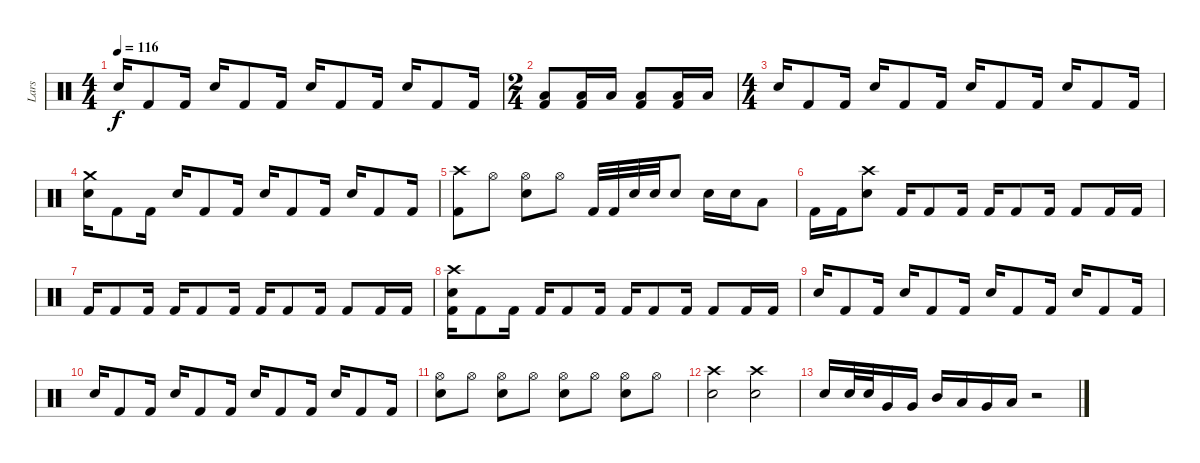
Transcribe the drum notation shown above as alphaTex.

\track ("Lars" "Lars") {instrument percussion}
\staff {score}
\articulation defaults
\ts (4 4)
\tempo 116
\clef neutral
\ks c "Snare (hit) 2".16{dy f} "Kick (hit) 2".8 "Kick (hit) 2".16 "Snare (hit) 2".16 "Kick (hit) 2".8 "Kick (hit) 2".16 "Snare (hit) 2".16 "Kick (hit) 2".8 "Kick (hit) 2".16 "Snare (hit) 2".16 "Kick (hit) 2".8 "Kick (hit) 2".16
|
\ts (2 4)
("Kick (hit) 2" "Low Floor Tom (hit)").8 ("Kick (hit) 2" "Low Floor Tom (hit)").16 "Low Floor Tom (hit)".16 ("Kick (hit) 2" "Low Floor Tom (hit)").8 ("Kick (hit) 2" "Low Floor Tom (hit)").16 "Low Floor Tom (hit)".16 |
\ts (4 4)
"Snare (hit) 2".16 "Kick (hit) 2".8 "Kick (hit) 2".16 "Snare (hit) 2".16 "Kick (hit) 2".8 "Kick (hit) 2".16 "Snare (hit) 2".16 "Kick (hit) 2".8 "Kick (hit) 2".16 "Snare (hit) 2".16 "Kick (hit) 2".8 "Kick (hit) 2".16 |
("Crash medium (hit)" "Snare (hit) 2").16 "Kick (hit) 2".8 "Kick (hit) 2".16 "Snare (hit) 2".16 "Kick (hit) 2".8 "Kick (hit) 2".16 "Snare (hit) 2".16 "Kick (hit) 2".8 "Kick (hit) 2".16 "Snare (hit) 2".16 "Kick (hit) 2".8 "Kick (hit) 2".16 |
("Crash high (hit)" "Kick (hit) 2").8 "Hi-Hat (open)".8 ("Snare (hit) 2" "Hi-Hat (open)").8 "Hi-Hat (open)".8 "Kick (hit) 2".32 "Kick (hit) 2".32 "Snare (hit) 2".32 "Snare (hit) 2".32 "Snare (hit) 2".8 "Snare (hit) 2".16 "Snare (hit) 2".16 "Low Tom (hit)".8 |
"Kick (hit) 2".16 "Kick (hit) 2".16 ("Snare (hit) 2" "Crash high (hit)").8 "Kick (hit) 2".16 "Kick (hit) 2".8 "Kick (hit) 2".16 "Kick (hit) 2".16 "Kick (hit) 2".8 "Kick (hit) 2".16 "Kick (hit) 2".8 "Kick (hit) 2".16 "Kick (hit) 2".16 |
"Kick (hit) 2".16 "Kick (hit) 2".8 "Kick (hit) 2".16 "Kick (hit) 2".16 "Kick (hit) 2".8 "Kick (hit) 2".16 "Kick (hit) 2".16 "Kick (hit) 2".8 "Kick (hit) 2".16 "Kick (hit) 2".8 "Kick (hit) 2".16 "Kick (hit) 2".16 |
("Crash high (hit)" "Snare (hit) 2" "Kick (hit) 2").16 "Kick (hit) 2".8 "Kick (hit) 2".16 "Kick (hit) 2".16 "Kick (hit) 2".8 "Kick (hit) 2".16 "Kick (hit) 2".16 "Kick (hit) 2".8 "Kick (hit) 2".16 "Kick (hit) 2".8 "Kick (hit) 2".16 "Kick (hit) 2".16 |
"Snare (hit) 2".16 "Kick (hit) 2".8 "Kick (hit) 2".16 "Snare (hit) 2".16 "Kick (hit) 2".8 "Kick (hit) 2".16 "Snare (hit) 2".16 "Kick (hit) 2".8 "Kick (hit) 2".16 "Snare (hit) 2".16 "Kick (hit) 2".8 "Kick (hit) 2".16 |
"Snare (hit) 2".16 "Kick (hit) 2".8 "Kick (hit) 2".16 "Snare (hit) 2".16 "Kick (hit) 2".8 "Kick (hit) 2".16 "Snare (hit) 2".16 "Kick (hit) 2".8 "Kick (hit) 2".16 "Snare (hit) 2".16 "Kick (hit) 2".8 "Kick (hit) 2".16 |
("Snare (hit) 2" "Hi-Hat (open)").8 "Hi-Hat (open)".8 ("Hi-Hat (open)" "Snare (hit) 2").8 "Hi-Hat (open)".8 ("Snare (hit) 2" "Hi-Hat (open)").8 "Hi-Hat (open)".8 ("Snare (hit) 2" "Hi-Hat (open)").8 "Hi-Hat (open)".8 |
("Snare (hit) 2" "Crash high (hit)").2 ("Snare (hit) 2" "Crash high (hit)").2 |
"Snare (hit) 2".16 "Snare (hit) 2".32 "Snare (hit) 2".32 "Very Low Tom (hit)".16 "Very Low Tom (hit)".16 "Mid Tom (hit)".16 "Low Tom (hit)".16 "Very Low Tom (hit)".16 "Low Floor Tom (hit)".16 r.2
